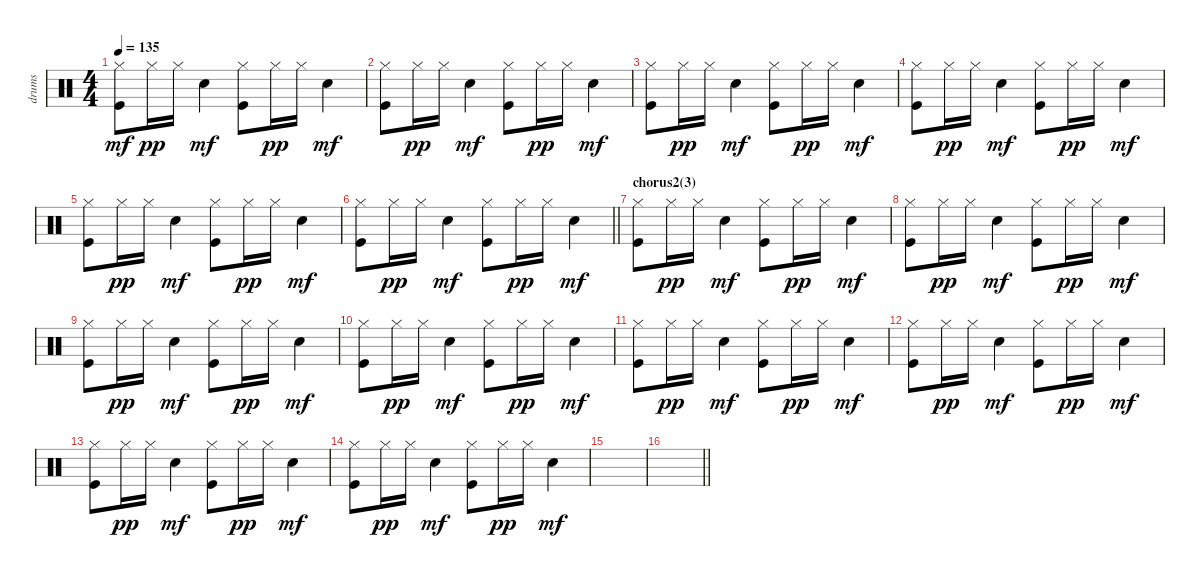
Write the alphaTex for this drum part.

\track ("drums" "drums") {instrument percussion}
\staff {score}
\articulation defaults
\ts (4 4)
\tempo 135
\clef neutral
\ks c
("Hi-Hat (closed)" "Kick (hit)").8{dy mf} "Hi-Hat (closed)".16{dy pp} "Hi-Hat (closed)".16 "Snare (hit) 2".4{dy mf} ("Hi-Hat (closed)" "Kick (hit)").8 "Hi-Hat (closed)".16{dy pp} "Hi-Hat (closed)".16 "Snare (hit) 2".4{dy mf} |
("Hi-Hat (closed)" "Kick (hit)").8 "Hi-Hat (closed)".16{dy pp} "Hi-Hat (closed)".16 "Snare (hit) 2".4{dy mf} ("Hi-Hat (closed)" "Kick (hit)").8 "Hi-Hat (closed)".16{dy pp} "Hi-Hat (closed)".16 "Snare (hit) 2".4{dy mf} |
("Hi-Hat (closed)" "Kick (hit)").8 "Hi-Hat (closed)".16{dy pp} "Hi-Hat (closed)".16 "Snare (hit) 2".4{dy mf} ("Hi-Hat (closed)" "Kick (hit)").8 "Hi-Hat (closed)".16{dy pp} "Hi-Hat (closed)".16 "Snare (hit) 2".4{dy mf} |
("Hi-Hat (closed)" "Kick (hit)").8 "Hi-Hat (closed)".16{dy pp} "Hi-Hat (closed)".16 "Snare (hit) 2".4{dy mf} ("Hi-Hat (closed)" "Kick (hit)").8 "Hi-Hat (closed)".16{dy pp} "Hi-Hat (closed)".16 "Snare (hit) 2".4{dy mf} |
("Hi-Hat (closed)" "Kick (hit)").8 "Hi-Hat (closed)".16{dy pp} "Hi-Hat (closed)".16 "Snare (hit) 2".4{dy mf} ("Hi-Hat (closed)" "Kick (hit)").8 "Hi-Hat (closed)".16{dy pp} "Hi-Hat (closed)".16 "Snare (hit) 2".4{dy mf} |
\barLineRight lightlight
("Hi-Hat (closed)" "Kick (hit)").8 "Hi-Hat (closed)".16{dy pp} "Hi-Hat (closed)".16 "Snare (hit) 2".4{dy mf} ("Hi-Hat (closed)" "Kick (hit)").8 "Hi-Hat (closed)".16{dy pp} "Hi-Hat (closed)".16 "Snare (hit) 2".4{dy mf} |
\section ("" "chorus2(3)")
("Hi-Hat (closed)" "Kick (hit)").8 "Hi-Hat (closed)".16{dy pp} "Hi-Hat (closed)".16 "Snare (hit) 2".4{dy mf} ("Hi-Hat (closed)" "Kick (hit)").8 "Hi-Hat (closed)".16{dy pp} "Hi-Hat (closed)".16 "Snare (hit) 2".4{dy mf} |
("Hi-Hat (closed)" "Kick (hit)").8 "Hi-Hat (closed)".16{dy pp} "Hi-Hat (closed)".16 "Snare (hit) 2".4{dy mf} ("Hi-Hat (closed)" "Kick (hit)").8 "Hi-Hat (closed)".16{dy pp} "Hi-Hat (closed)".16 "Snare (hit) 2".4{dy mf} |
("Hi-Hat (closed)" "Kick (hit)").8 "Hi-Hat (closed)".16{dy pp} "Hi-Hat (closed)".16 "Snare (hit) 2".4{dy mf} ("Hi-Hat (closed)" "Kick (hit)").8 "Hi-Hat (closed)".16{dy pp} "Hi-Hat (closed)".16 "Snare (hit) 2".4{dy mf} |
("Hi-Hat (closed)" "Kick (hit)").8 "Hi-Hat (closed)".16{dy pp} "Hi-Hat (closed)".16 "Snare (hit) 2".4{dy mf} ("Hi-Hat (closed)" "Kick (hit)").8 "Hi-Hat (closed)".16{dy pp} "Hi-Hat (closed)".16 "Snare (hit) 2".4{dy mf} |
("Hi-Hat (closed)" "Kick (hit)").8 "Hi-Hat (closed)".16{dy pp} "Hi-Hat (closed)".16 "Snare (hit) 2".4{dy mf} ("Hi-Hat (closed)" "Kick (hit)").8 "Hi-Hat (closed)".16{dy pp} "Hi-Hat (closed)".16 "Snare (hit) 2".4{dy mf} |
("Hi-Hat (closed)" "Kick (hit)").8 "Hi-Hat (closed)".16{dy pp} "Hi-Hat (closed)".16 "Snare (hit) 2".4{dy mf} ("Hi-Hat (closed)" "Kick (hit)").8 "Hi-Hat (closed)".16{dy pp} "Hi-Hat (closed)".16 "Snare (hit) 2".4{dy mf} |
("Hi-Hat (closed)" "Kick (hit)").8 "Hi-Hat (closed)".16{dy pp} "Hi-Hat (closed)".16 "Snare (hit) 2".4{dy mf} ("Hi-Hat (closed)" "Kick (hit)").8 "Hi-Hat (closed)".16{dy pp} "Hi-Hat (closed)".16 "Snare (hit) 2".4{dy mf} |
("Hi-Hat (closed)" "Kick (hit)").8 "Hi-Hat (closed)".16{dy pp} "Hi-Hat (closed)".16 "Snare (hit) 2".4{dy mf} ("Hi-Hat (closed)" "Kick (hit)").8 "Hi-Hat (closed)".16{dy pp} "Hi-Hat (closed)".16 "Snare (hit) 2".4{dy mf} |
|
\barLineRight lightlight
